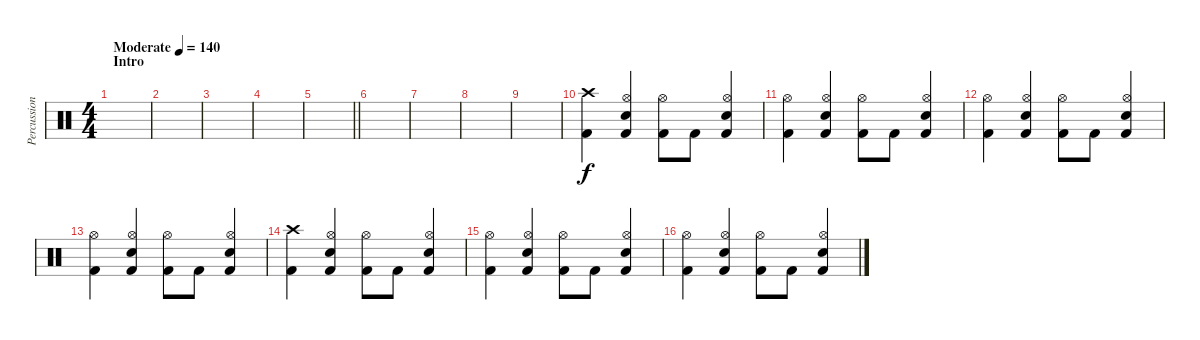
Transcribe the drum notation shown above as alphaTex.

\track ("Percussions" "Percussion") {instrument percussion}
\staff {score}
\articulation defaults
\ts (4 4)
\section ("" "Intro")
\tempo (140 "Moderate")
\clef neutral
\ks c
|
|
|
|
\barLineRight lightlight
|
|
|
|
|
("Crash high (hit)" "Kick (hit) 2").4 ("Hi-Hat (open)" "Electric Snare (hit)" "Kick (hit) 2").4 ("Hi-Hat (open)" "Kick (hit) 2").8 "Kick (hit) 2".8 ("Hi-Hat (open)" "Electric Snare (hit)" "Kick (hit) 2").4 |
("Hi-Hat (open)" "Kick (hit) 2").4 ("Hi-Hat (open)" "Electric Snare (hit)" "Kick (hit) 2").4 ("Hi-Hat (open)" "Kick (hit) 2").8 "Kick (hit) 2".8 ("Hi-Hat (open)" "Electric Snare (hit)" "Kick (hit) 2").4 |
("Hi-Hat (open)" "Kick (hit) 2").4 ("Hi-Hat (open)" "Electric Snare (hit)" "Kick (hit) 2").4 ("Hi-Hat (open)" "Kick (hit) 2").8 "Kick (hit) 2".8 ("Hi-Hat (open)" "Electric Snare (hit)" "Kick (hit) 2").4 |
("Hi-Hat (open)" "Kick (hit) 2").4 ("Hi-Hat (open)" "Electric Snare (hit)" "Kick (hit) 2").4 ("Hi-Hat (open)" "Kick (hit) 2").8 "Kick (hit) 2".8 ("Hi-Hat (open)" "Electric Snare (hit)" "Kick (hit) 2").4 |
("Crash high (hit)" "Kick (hit) 2").4 ("Hi-Hat (open)" "Electric Snare (hit)" "Kick (hit) 2").4 ("Hi-Hat (open)" "Kick (hit) 2").8 "Kick (hit) 2".8 ("Hi-Hat (open)" "Electric Snare (hit)" "Kick (hit) 2").4 |
("Hi-Hat (open)" "Kick (hit) 2").4 ("Hi-Hat (open)" "Electric Snare (hit)" "Kick (hit) 2").4 ("Hi-Hat (open)" "Kick (hit) 2").8 "Kick (hit) 2".8 ("Hi-Hat (open)" "Electric Snare (hit)" "Kick (hit) 2").4 |
("Hi-Hat (open)" "Kick (hit) 2").4 ("Hi-Hat (open)" "Electric Snare (hit)" "Kick (hit) 2").4 ("Hi-Hat (open)" "Kick (hit) 2").8 "Kick (hit) 2".8 ("Hi-Hat (open)" "Electric Snare (hit)" "Kick (hit) 2").4
